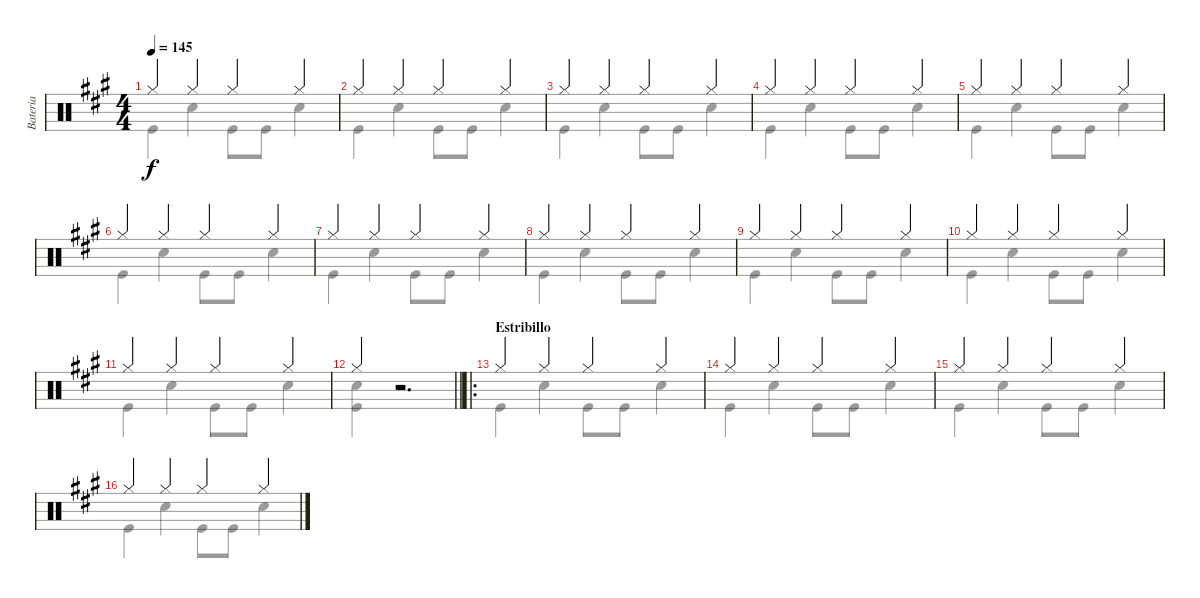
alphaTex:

\track ("Bateria" "Bateria") {instrument percussion}
\staff {score}
\articulation defaults
\voice
\ts (4 4)
\tempo 145
\clef neutral
\ks a "Hi-Hat (closed)".4{dy f} "Hi-Hat (closed)".4 "Hi-Hat (closed)".4 "Hi-Hat (closed)".4
|
"Hi-Hat (closed)".4 "Hi-Hat (closed)".4 "Hi-Hat (closed)".4 "Hi-Hat (closed)".4 |
"Hi-Hat (closed)".4 "Hi-Hat (closed)".4 "Hi-Hat (closed)".4 "Hi-Hat (closed)".4 |
"Hi-Hat (closed)".4 "Hi-Hat (closed)".4 "Hi-Hat (closed)".4 "Hi-Hat (closed)".4 |
"Hi-Hat (closed)".4 "Hi-Hat (closed)".4 "Hi-Hat (closed)".4 "Hi-Hat (closed)".4 |
"Hi-Hat (closed)".4 "Hi-Hat (closed)".4 "Hi-Hat (closed)".4 "Hi-Hat (closed)".4 |
"Hi-Hat (closed)".4 "Hi-Hat (closed)".4 "Hi-Hat (closed)".4 "Hi-Hat (closed)".4 |
"Hi-Hat (closed)".4 "Hi-Hat (closed)".4 "Hi-Hat (closed)".4 "Hi-Hat (closed)".4 |
"Hi-Hat (closed)".4 "Hi-Hat (closed)".4 "Hi-Hat (closed)".4 "Hi-Hat (closed)".4 |
"Hi-Hat (closed)".4 "Hi-Hat (closed)".4 "Hi-Hat (closed)".4 "Hi-Hat (closed)".4 |
"Hi-Hat (closed)".4 "Hi-Hat (closed)".4 "Hi-Hat (closed)".4 "Hi-Hat (closed)".4 |
\barLineRight lightlight "Hi-Hat (closed)".4
r.2{d} |
\ro
\section ("" "Estribillo")
"Hi-Hat (closed)".4 "Hi-Hat (closed)".4 "Hi-Hat (closed)".4 "Hi-Hat (closed)".4 |
"Hi-Hat (closed)".4 "Hi-Hat (closed)".4 "Hi-Hat (closed)".4 "Hi-Hat (closed)".4 |
"Hi-Hat (closed)".4 "Hi-Hat (closed)".4 "Hi-Hat (closed)".4 "Hi-Hat (closed)".4 |
"Hi-Hat (closed)".4 "Hi-Hat (closed)".4 "Hi-Hat (closed)".4 "Hi-Hat (closed)".4
\voice
\clef neutral
\ottava regular
\simile none
\ks a "Kick (hit)".4{dy f} "Snare (hit) 2".4 "Kick (hit)".8 "Kick (hit)".8 "Snare (hit) 2".4
|
"Kick (hit)".4 "Snare (hit) 2".4 "Kick (hit)".8 "Kick (hit)".8 "Snare (hit) 2".4 |
"Kick (hit)".4 "Snare (hit) 2".4 "Kick (hit)".8 "Kick (hit)".8 "Snare (hit) 2".4 |
"Kick (hit)".4 "Snare (hit) 2".4 "Kick (hit)".8 "Kick (hit)".8 "Snare (hit) 2".4 |
"Kick (hit)".4 "Snare (hit) 2".4 "Kick (hit)".8 "Kick (hit)".8 "Snare (hit) 2".4 |
"Kick (hit)".4 "Snare (hit) 2".4 "Kick (hit)".8 "Kick (hit)".8 "Snare (hit) 2".4 |
"Kick (hit)".4 "Snare (hit) 2".4 "Kick (hit)".8 "Kick (hit)".8 "Snare (hit) 2".4 |
"Kick (hit)".4 "Snare (hit) 2".4 "Kick (hit)".8 "Kick (hit)".8 "Snare (hit) 2".4 |
"Kick (hit)".4 "Snare (hit) 2".4 "Kick (hit)".8 "Kick (hit)".8 "Snare (hit) 2".4 |
"Kick (hit)".4 "Snare (hit) 2".4 "Kick (hit)".8 "Kick (hit)".8 "Snare (hit) 2".4 |
"Kick (hit)".4 "Snare (hit) 2".4 "Kick (hit)".8 "Kick (hit)".8 "Snare (hit) 2".4 |
\barLineRight lightlight
("Kick (hit)" "Snare (hit) 2").4 r.2{d} |
"Kick (hit)".4 "Snare (hit) 2".4 "Kick (hit)".8 "Kick (hit)".8 "Snare (hit) 2".4 |
"Kick (hit)".4 "Snare (hit) 2".4 "Kick (hit)".8 "Kick (hit)".8 "Snare (hit) 2".4 |
"Kick (hit)".4 "Snare (hit) 2".4 "Kick (hit)".8 "Kick (hit)".8 "Snare (hit) 2".4 |
"Kick (hit)".4 "Snare (hit) 2".4 "Kick (hit)".8 "Kick (hit)".8 "Snare (hit) 2".4
